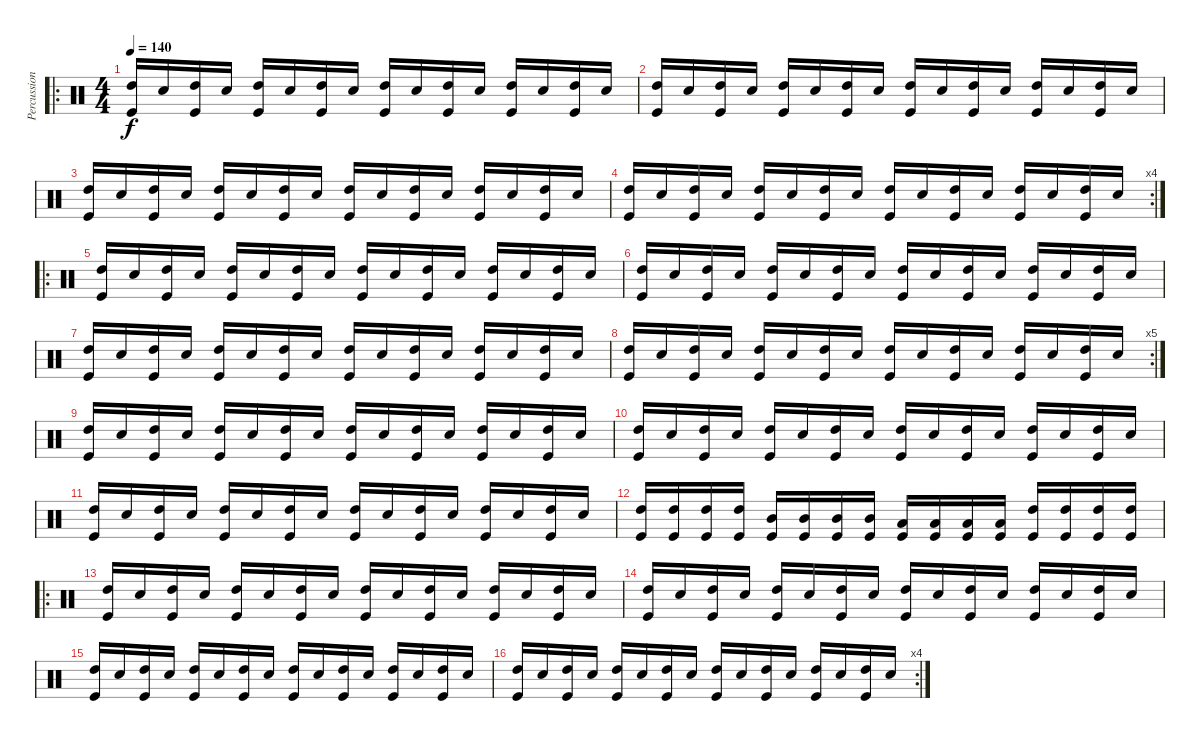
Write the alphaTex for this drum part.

\track ("Percussioni" "Percussion") {instrument percussion}
\staff {score}
\articulation defaults
\ro
\ts (4 4)
\tempo 140
\clef neutral
\ks c
("High Tom (hit)" "Kick (hit)").16{dy f} "Snare (hit) 2".16 ("High Tom (hit)" "Kick (hit)").16 "Snare (hit) 2".16 ("High Tom (hit)" "Kick (hit)").16 "Snare (hit) 2".16 ("High Tom (hit)" "Kick (hit)").16 "Snare (hit) 2".16 ("High Tom (hit)" "Kick (hit)").16 "Snare (hit) 2".16 ("High Tom (hit)" "Kick (hit)").16 "Snare (hit) 2".16 ("High Tom (hit)" "Kick (hit)").16 "Snare (hit) 2".16 ("High Tom (hit)" "Kick (hit)").16 "Snare (hit) 2".16 |
("High Tom (hit)" "Kick (hit)").16 "Snare (hit) 2".16 ("High Tom (hit)" "Kick (hit)").16 "Snare (hit) 2".16 ("High Tom (hit)" "Kick (hit)").16 "Snare (hit) 2".16 ("High Tom (hit)" "Kick (hit)").16 "Snare (hit) 2".16 ("High Tom (hit)" "Kick (hit)").16 "Snare (hit) 2".16 ("High Tom (hit)" "Kick (hit)").16 "Snare (hit) 2".16 ("High Tom (hit)" "Kick (hit)").16 "Snare (hit) 2".16 ("High Tom (hit)" "Kick (hit)").16 "Snare (hit) 2".16 |
("High Tom (hit)" "Kick (hit)").16 "Snare (hit) 2".16 ("High Tom (hit)" "Kick (hit)").16 "Snare (hit) 2".16 ("High Tom (hit)" "Kick (hit)").16 "Snare (hit) 2".16 ("High Tom (hit)" "Kick (hit)").16 "Snare (hit) 2".16 ("High Tom (hit)" "Kick (hit)").16 "Snare (hit) 2".16 ("High Tom (hit)" "Kick (hit)").16 "Snare (hit) 2".16 ("High Tom (hit)" "Kick (hit)").16 "Snare (hit) 2".16 ("High Tom (hit)" "Kick (hit)").16 "Snare (hit) 2".16 |
\rc 4
("High Tom (hit)" "Kick (hit)").16 "Snare (hit) 2".16 ("High Tom (hit)" "Kick (hit)").16 "Snare (hit) 2".16 ("High Tom (hit)" "Kick (hit)").16 "Snare (hit) 2".16 ("High Tom (hit)" "Kick (hit)").16 "Snare (hit) 2".16 ("High Tom (hit)" "Kick (hit)").16 "Snare (hit) 2".16 ("High Tom (hit)" "Kick (hit)").16 "Snare (hit) 2".16 ("High Tom (hit)" "Kick (hit)").16 "Snare (hit) 2".16 ("High Tom (hit)" "Kick (hit)").16 "Snare (hit) 2".16 |
\ro
("High Tom (hit)" "Kick (hit)").16 "Snare (hit) 2".16 ("High Tom (hit)" "Kick (hit)").16 "Snare (hit) 2".16 ("High Tom (hit)" "Kick (hit)").16 "Snare (hit) 2".16 ("High Tom (hit)" "Kick (hit)").16 "Snare (hit) 2".16 ("High Tom (hit)" "Kick (hit)").16 "Snare (hit) 2".16 ("High Tom (hit)" "Kick (hit)").16 "Snare (hit) 2".16 ("High Tom (hit)" "Kick (hit)").16 "Snare (hit) 2".16 ("High Tom (hit)" "Kick (hit)").16 "Snare (hit) 2".16 |
("High Tom (hit)" "Kick (hit)").16 "Snare (hit) 2".16 ("High Tom (hit)" "Kick (hit)").16 "Snare (hit) 2".16 ("High Tom (hit)" "Kick (hit)").16 "Snare (hit) 2".16 ("High Tom (hit)" "Kick (hit)").16 "Snare (hit) 2".16 ("High Tom (hit)" "Kick (hit)").16 "Snare (hit) 2".16 ("High Tom (hit)" "Kick (hit)").16 "Snare (hit) 2".16 ("High Tom (hit)" "Kick (hit)").16 "Snare (hit) 2".16 ("High Tom (hit)" "Kick (hit)").16 "Snare (hit) 2".16 |
("High Tom (hit)" "Kick (hit)").16 "Snare (hit) 2".16 ("High Tom (hit)" "Kick (hit)").16 "Snare (hit) 2".16 ("High Tom (hit)" "Kick (hit)").16 "Snare (hit) 2".16 ("High Tom (hit)" "Kick (hit)").16 "Snare (hit) 2".16 ("High Tom (hit)" "Kick (hit)").16 "Snare (hit) 2".16 ("High Tom (hit)" "Kick (hit)").16 "Snare (hit) 2".16 ("High Tom (hit)" "Kick (hit)").16 "Snare (hit) 2".16 ("High Tom (hit)" "Kick (hit)").16 "Snare (hit) 2".16 |
\rc 5
("High Tom (hit)" "Kick (hit)").16 "Snare (hit) 2".16 ("High Tom (hit)" "Kick (hit)").16 "Snare (hit) 2".16 ("High Tom (hit)" "Kick (hit)").16 "Snare (hit) 2".16 ("High Tom (hit)" "Kick (hit)").16 "Snare (hit) 2".16 ("High Tom (hit)" "Kick (hit)").16 "Snare (hit) 2".16 ("High Tom (hit)" "Kick (hit)").16 "Snare (hit) 2".16 ("High Tom (hit)" "Kick (hit)").16 "Snare (hit) 2".16 ("High Tom (hit)" "Kick (hit)").16 "Snare (hit) 2".16 |
("High Tom (hit)" "Kick (hit)").16 "Snare (hit) 2".16 ("High Tom (hit)" "Kick (hit)").16 "Snare (hit) 2".16 ("High Tom (hit)" "Kick (hit)").16 "Snare (hit) 2".16 ("High Tom (hit)" "Kick (hit)").16 "Snare (hit) 2".16 ("High Tom (hit)" "Kick (hit)").16 "Snare (hit) 2".16 ("High Tom (hit)" "Kick (hit)").16 "Snare (hit) 2".16 ("High Tom (hit)" "Kick (hit)").16 "Snare (hit) 2".16 ("High Tom (hit)" "Kick (hit)").16 "Snare (hit) 2".16 |
("High Tom (hit)" "Kick (hit)").16 "Snare (hit) 2".16 ("High Tom (hit)" "Kick (hit)").16 "Snare (hit) 2".16 ("High Tom (hit)" "Kick (hit)").16 "Snare (hit) 2".16 ("High Tom (hit)" "Kick (hit)").16 "Snare (hit) 2".16 ("High Tom (hit)" "Kick (hit)").16 "Snare (hit) 2".16 ("High Tom (hit)" "Kick (hit)").16 "Snare (hit) 2".16 ("High Tom (hit)" "Kick (hit)").16 "Snare (hit) 2".16 ("High Tom (hit)" "Kick (hit)").16 "Snare (hit) 2".16 |
("High Tom (hit)" "Kick (hit)").16 "Snare (hit) 2".16 ("High Tom (hit)" "Kick (hit)").16 "Snare (hit) 2".16 ("High Tom (hit)" "Kick (hit)").16 "Snare (hit) 2".16 ("High Tom (hit)" "Kick (hit)").16 "Snare (hit) 2".16 ("High Tom (hit)" "Kick (hit)").16 "Snare (hit) 2".16 ("High Tom (hit)" "Kick (hit)").16 "Snare (hit) 2".16 ("High Tom (hit)" "Kick (hit)").16 "Snare (hit) 2".16 ("High Tom (hit)" "Kick (hit)").16 "Snare (hit) 2".16 |
("High Tom (hit)" "Kick (hit)").16 ("High Tom (hit)" "Kick (hit)").16 ("High Tom (hit)" "Kick (hit)").16 ("High Tom (hit)" "Kick (hit)").16 ("Mid Tom (hit)" "Kick (hit)").16 ("Mid Tom (hit)" "Kick (hit)").16 ("Mid Tom (hit)" "Kick (hit)").16 ("Mid Tom (hit)" "Kick (hit)").16 ("Low Tom (hit)" "Kick (hit)").16 ("Low Tom (hit)" "Kick (hit)").16 ("Low Tom (hit)" "Kick (hit)").16 ("Low Tom (hit)" "Kick (hit)").16 ("High Tom (hit)" "Kick (hit)").16 ("High Tom (hit)" "Kick (hit)").16 ("High Tom (hit)" "Kick (hit)").16 ("High Tom (hit)" "Kick (hit)").16 |
\ro
("High Tom (hit)" "Kick (hit)").16 "Snare (hit) 2".16 ("High Tom (hit)" "Kick (hit)").16 "Snare (hit) 2".16 ("High Tom (hit)" "Kick (hit)").16 "Snare (hit) 2".16 ("High Tom (hit)" "Kick (hit)").16 "Snare (hit) 2".16 ("High Tom (hit)" "Kick (hit)").16 "Snare (hit) 2".16 ("High Tom (hit)" "Kick (hit)").16 "Snare (hit) 2".16 ("High Tom (hit)" "Kick (hit)").16 "Snare (hit) 2".16 ("High Tom (hit)" "Kick (hit)").16 "Snare (hit) 2".16 |
("High Tom (hit)" "Kick (hit)").16 "Snare (hit) 2".16 ("High Tom (hit)" "Kick (hit)").16 "Snare (hit) 2".16 ("High Tom (hit)" "Kick (hit)").16 "Snare (hit) 2".16 ("High Tom (hit)" "Kick (hit)").16 "Snare (hit) 2".16 ("High Tom (hit)" "Kick (hit)").16 "Snare (hit) 2".16 ("High Tom (hit)" "Kick (hit)").16 "Snare (hit) 2".16 ("High Tom (hit)" "Kick (hit)").16 "Snare (hit) 2".16 ("High Tom (hit)" "Kick (hit)").16 "Snare (hit) 2".16 |
("High Tom (hit)" "Kick (hit)").16 "Snare (hit) 2".16 ("High Tom (hit)" "Kick (hit)").16 "Snare (hit) 2".16 ("High Tom (hit)" "Kick (hit)").16 "Snare (hit) 2".16 ("High Tom (hit)" "Kick (hit)").16 "Snare (hit) 2".16 ("High Tom (hit)" "Kick (hit)").16 "Snare (hit) 2".16 ("High Tom (hit)" "Kick (hit)").16 "Snare (hit) 2".16 ("High Tom (hit)" "Kick (hit)").16 "Snare (hit) 2".16 ("High Tom (hit)" "Kick (hit)").16 "Snare (hit) 2".16 |
\rc 4
("High Tom (hit)" "Kick (hit)").16 "Snare (hit) 2".16 ("High Tom (hit)" "Kick (hit)").16 "Snare (hit) 2".16 ("High Tom (hit)" "Kick (hit)").16 "Snare (hit) 2".16 ("High Tom (hit)" "Kick (hit)").16 "Snare (hit) 2".16 ("High Tom (hit)" "Kick (hit)").16 "Snare (hit) 2".16 ("High Tom (hit)" "Kick (hit)").16 "Snare (hit) 2".16 ("High Tom (hit)" "Kick (hit)").16 "Snare (hit) 2".16 ("High Tom (hit)" "Kick (hit)").16 "Snare (hit) 2".16
